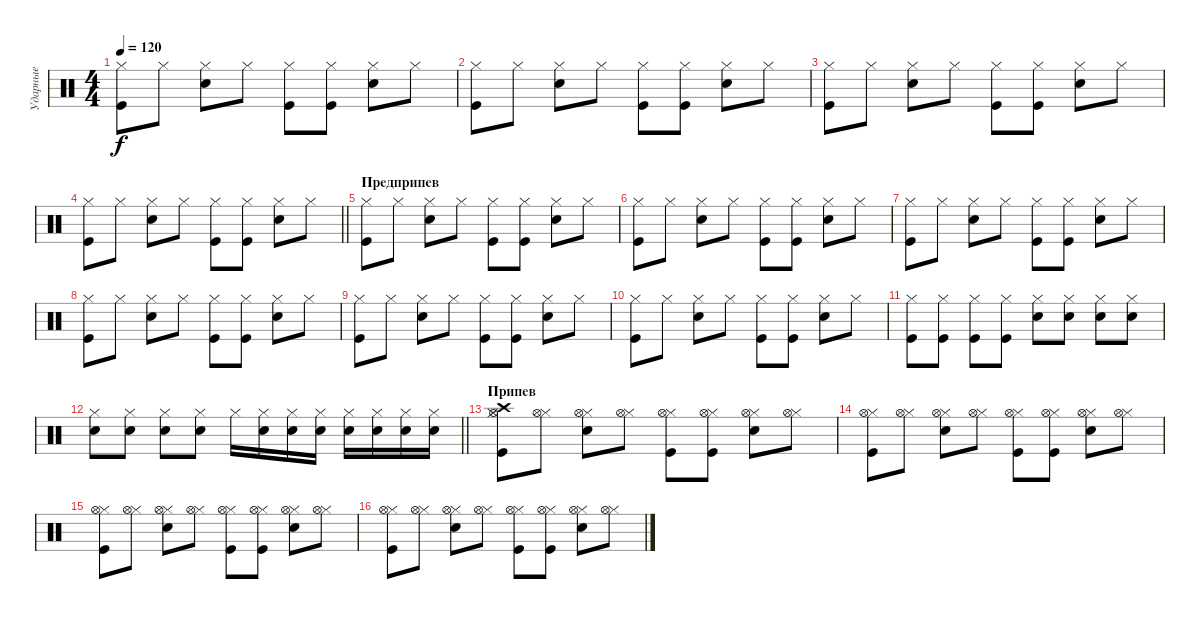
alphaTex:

\track ("Ударные" "Ударные") {instrument percussion}
\staff {score}
\articulation defaults
\ts (4 4)
\tempo 120
\clef neutral
\ks c
("Hi-Hat (closed)" "Kick (hit)").8{dy f} "Hi-Hat (closed)".8 ("Hi-Hat (closed)" "Snare (hit) 2").8 "Hi-Hat (closed)".8 ("Hi-Hat (closed)" "Kick (hit)").8 ("Hi-Hat (closed)" "Kick (hit)").8 ("Hi-Hat (closed)" "Snare (hit) 2").8 "Hi-Hat (closed)".8 |
("Hi-Hat (closed)" "Kick (hit)").8 "Hi-Hat (closed)".8 ("Hi-Hat (closed)" "Snare (hit) 2").8 "Hi-Hat (closed)".8 ("Hi-Hat (closed)" "Kick (hit)").8 ("Hi-Hat (closed)" "Kick (hit)").8 ("Hi-Hat (closed)" "Snare (hit) 2").8 "Hi-Hat (closed)".8 |
("Hi-Hat (closed)" "Kick (hit)").8 "Hi-Hat (closed)".8 ("Hi-Hat (closed)" "Snare (hit) 2").8 "Hi-Hat (closed)".8 ("Hi-Hat (closed)" "Kick (hit)").8 ("Hi-Hat (closed)" "Kick (hit)").8 ("Hi-Hat (closed)" "Snare (hit) 2").8 "Hi-Hat (closed)".8 |
\barLineRight lightlight
("Hi-Hat (closed)" "Kick (hit)").8 "Hi-Hat (closed)".8 ("Hi-Hat (closed)" "Snare (hit) 2").8 "Hi-Hat (closed)".8 ("Hi-Hat (closed)" "Kick (hit)").8 ("Hi-Hat (closed)" "Kick (hit)").8 ("Hi-Hat (closed)" "Snare (hit) 2").8 "Hi-Hat (closed)".8 |
\section ("" "Предприпев")
("Hi-Hat (closed)" "Kick (hit)").8 "Hi-Hat (closed)".8 ("Hi-Hat (closed)" "Snare (hit) 2").8 "Hi-Hat (closed)".8 ("Hi-Hat (closed)" "Kick (hit)").8 ("Hi-Hat (closed)" "Kick (hit)").8 ("Hi-Hat (closed)" "Snare (hit) 2").8 "Hi-Hat (closed)".8 |
("Hi-Hat (closed)" "Kick (hit)").8 "Hi-Hat (closed)".8 ("Hi-Hat (closed)" "Snare (hit) 2").8 "Hi-Hat (closed)".8 ("Hi-Hat (closed)" "Kick (hit)").8 ("Hi-Hat (closed)" "Kick (hit)").8 ("Hi-Hat (closed)" "Snare (hit) 2").8 "Hi-Hat (closed)".8 |
("Hi-Hat (closed)" "Kick (hit)").8 "Hi-Hat (closed)".8 ("Hi-Hat (closed)" "Snare (hit) 2").8 "Hi-Hat (closed)".8 ("Hi-Hat (closed)" "Kick (hit)").8 ("Hi-Hat (closed)" "Kick (hit)").8 ("Hi-Hat (closed)" "Snare (hit) 2").8 "Hi-Hat (closed)".8 |
("Hi-Hat (closed)" "Kick (hit)").8 "Hi-Hat (closed)".8 ("Hi-Hat (closed)" "Snare (hit) 2").8 "Hi-Hat (closed)".8 ("Hi-Hat (closed)" "Kick (hit)").8 ("Hi-Hat (closed)" "Kick (hit)").8 ("Hi-Hat (closed)" "Snare (hit) 2").8 "Hi-Hat (closed)".8 |
("Hi-Hat (closed)" "Kick (hit)").8 "Hi-Hat (closed)".8 ("Hi-Hat (closed)" "Snare (hit) 2").8 "Hi-Hat (closed)".8 ("Hi-Hat (closed)" "Kick (hit)").8 ("Hi-Hat (closed)" "Kick (hit)").8 ("Hi-Hat (closed)" "Snare (hit) 2").8 "Hi-Hat (closed)".8 |
("Hi-Hat (closed)" "Kick (hit)").8 "Hi-Hat (closed)".8 ("Hi-Hat (closed)" "Snare (hit) 2").8 "Hi-Hat (closed)".8 ("Hi-Hat (closed)" "Kick (hit)").8 ("Hi-Hat (closed)" "Kick (hit)").8 ("Hi-Hat (closed)" "Snare (hit) 2").8 "Hi-Hat (closed)".8 |
("Hi-Hat (closed)" "Kick (hit)").8 ("Hi-Hat (closed)" "Kick (hit)").8 ("Hi-Hat (closed)" "Kick (hit)").8 ("Hi-Hat (closed)" "Kick (hit)").8 ("Hi-Hat (closed)" "Snare (hit) 2").8 ("Hi-Hat (closed)" "Snare (hit) 2").8 ("Hi-Hat (closed)" "Snare (hit) 2").8 ("Hi-Hat (closed)" "Snare (hit) 2").8 |
\barLineRight lightlight
("Hi-Hat (closed)" "Snare (hit) 2").8 ("Hi-Hat (closed)" "Snare (hit) 2").8 ("Hi-Hat (closed)" "Snare (hit) 2").8 ("Hi-Hat (closed)" "Snare (hit) 2").8 "Hi-Hat (closed)".16 ("Hi-Hat (closed)" "Snare (hit) 2").16 ("Hi-Hat (closed)" "Snare (hit) 2").16 ("Hi-Hat (closed)" "Snare (hit) 2").16 ("Hi-Hat (closed)" "Snare (hit) 2").16 ("Hi-Hat (closed)" "Snare (hit) 2").16 ("Hi-Hat (closed)" "Snare (hit) 2").16 ("Hi-Hat (closed)" "Snare (hit) 2").16 |
\section ("" "Припев")
("Hi-Hat (closed)" "Kick (hit)" "Crash high (hit)" "Hi-Hat (open)").8 ("Hi-Hat (closed)" "Hi-Hat (open)").8 ("Hi-Hat (closed)" "Snare (hit) 2" "Hi-Hat (open)").8 ("Hi-Hat (closed)" "Hi-Hat (open)").8 ("Hi-Hat (closed)" "Kick (hit)" "Hi-Hat (open)").8 ("Hi-Hat (closed)" "Kick (hit)" "Hi-Hat (open)").8 ("Hi-Hat (closed)" "Snare (hit) 2" "Hi-Hat (open)").8 ("Hi-Hat (closed)" "Hi-Hat (open)").8 |
("Hi-Hat (closed)" "Kick (hit)" "Hi-Hat (open)").8 ("Hi-Hat (closed)" "Hi-Hat (open)").8 ("Hi-Hat (closed)" "Snare (hit) 2" "Hi-Hat (open)").8 ("Hi-Hat (closed)" "Hi-Hat (open)").8 ("Hi-Hat (closed)" "Kick (hit)" "Hi-Hat (open)").8 ("Hi-Hat (closed)" "Kick (hit)" "Hi-Hat (open)").8 ("Hi-Hat (closed)" "Snare (hit) 2" "Hi-Hat (open)").8 ("Hi-Hat (closed)" "Hi-Hat (open)").8 |
("Hi-Hat (closed)" "Kick (hit)" "Hi-Hat (open)").8 ("Hi-Hat (closed)" "Hi-Hat (open)").8 ("Hi-Hat (closed)" "Snare (hit) 2" "Hi-Hat (open)").8 ("Hi-Hat (closed)" "Hi-Hat (open)").8 ("Hi-Hat (closed)" "Kick (hit)" "Hi-Hat (open)").8 ("Hi-Hat (closed)" "Kick (hit)" "Hi-Hat (open)").8 ("Hi-Hat (closed)" "Snare (hit) 2" "Hi-Hat (open)").8 ("Hi-Hat (closed)" "Hi-Hat (open)").8 |
("Hi-Hat (closed)" "Kick (hit)" "Hi-Hat (open)").8 ("Hi-Hat (closed)" "Hi-Hat (open)").8 ("Hi-Hat (closed)" "Snare (hit) 2" "Hi-Hat (open)").8 ("Hi-Hat (closed)" "Hi-Hat (open)").8 ("Hi-Hat (closed)" "Kick (hit)" "Hi-Hat (open)").8 ("Hi-Hat (closed)" "Kick (hit)" "Hi-Hat (open)").8 ("Hi-Hat (closed)" "Snare (hit) 2" "Hi-Hat (open)").8 ("Hi-Hat (closed)" "Hi-Hat (open)").8
